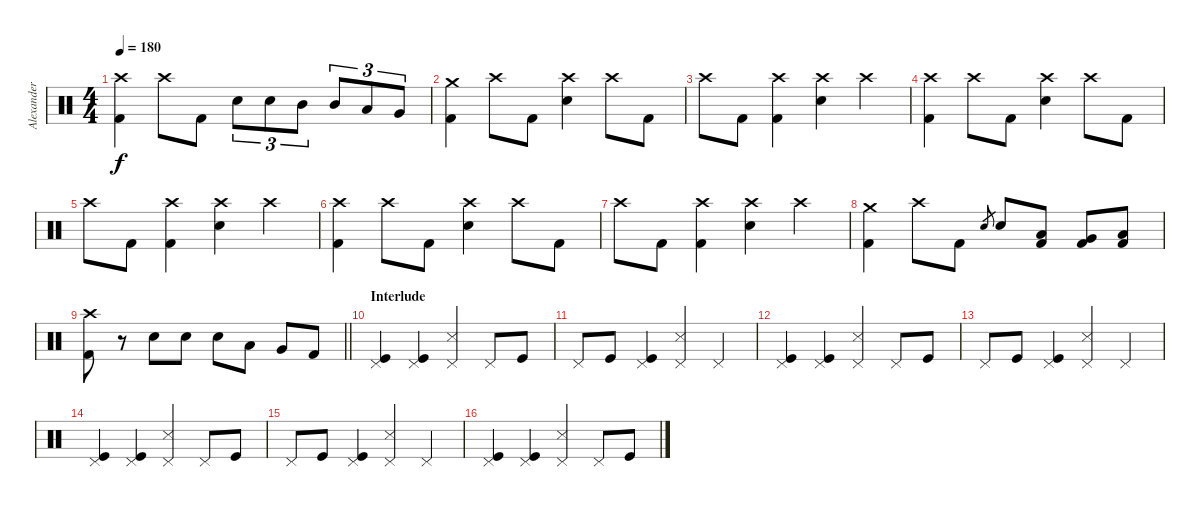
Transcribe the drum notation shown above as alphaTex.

\track ("Alexander Sveningsson" "Alexander ") {instrument percussion}
\staff {score}
\articulation defaults
\ts (4 4)
\tempo 180
\clef neutral
\ks c
("Crash high (hit)" "Kick (hit) 2").4{dy f} "Crash high (hit)".8 "Kick (hit) 2".8 "Electric Snare (hit)".8{tu (3 2)} "Electric Snare (hit)".8{tu (3 2)} "Mid Tom (hit)".8{tu (3 2)} "Mid Tom (hit)".8{tu (3 2)} "Low Tom (hit)".8{tu (3 2)} "Very Low Tom (hit)".8{tu (3 2)} |
("Crash medium (hit)" "Kick (hit) 2").4 "Crash high (hit)".8 "Kick (hit) 2".8 ("Crash high (hit)" "Electric Snare (hit)").4 "Crash high (hit)".8 "Kick (hit) 2".8 |
"Crash high (hit)".8 "Kick (hit) 2".8 ("Crash high (hit)" "Kick (hit) 2").4 ("Crash high (hit)" "Electric Snare (hit)").4 "Crash high (hit)".4 |
("Crash high (hit)" "Kick (hit) 2").4 "Crash high (hit)".8 "Kick (hit) 2".8 ("Crash high (hit)" "Electric Snare (hit)").4 "Crash high (hit)".8 "Kick (hit) 2".8 |
"Crash high (hit)".8 "Kick (hit) 2".8 ("Crash high (hit)" "Kick (hit) 2").4 ("Crash high (hit)" "Electric Snare (hit)").4 "Crash high (hit)".4 |
("Crash high (hit)" "Kick (hit) 2").4 "Crash high (hit)".8 "Kick (hit) 2".8 ("Crash high (hit)" "Electric Snare (hit)").4 "Crash high (hit)".8 "Kick (hit) 2".8 |
"Crash high (hit)".8 "Kick (hit) 2".8 ("Crash high (hit)" "Kick (hit) 2").4 ("Crash high (hit)" "Electric Snare (hit)").4 "Crash high (hit)".4 |
("Crash medium (hit)" "Kick (hit) 2").4 "Crash high (hit)".8 "Kick (hit) 2".8 "Electric Snare (hit)".8{gr} "Electric Snare (hit)".8 ("Low Tom (hit)" "Kick (hit) 2").8 ("Very Low Tom (hit)" "Kick (hit) 2").8 ("Low Floor Tom (hit)" "Kick (hit) 2").8 |
\barLineRight lightlight
("Crash high (hit)" "Kick (hit) 2").8 r.8 "Electric Snare (hit)".8 "Electric Snare (hit)".8 "Electric Snare (hit)".8 "Low Tom (hit)".8 "Very Low Tom (hit)".8 "Kick (hit) 2".8 |
\section ("" "Interlude")
("Pedal Hi-Hat (hit)" "Kick (hit)").4 ("Pedal Hi-Hat (hit)" "Kick (hit)").4 ("Pedal Hi-Hat (hit)" "Snare (side stick) 3").4 "Pedal Hi-Hat (hit)".8 "Kick (hit)".8 |
"Pedal Hi-Hat (hit)".8 "Kick (hit)".8 ("Pedal Hi-Hat (hit)" "Kick (hit)").4 ("Pedal Hi-Hat (hit)" "Snare (side stick) 3").4 "Pedal Hi-Hat (hit)".4 |
("Pedal Hi-Hat (hit)" "Kick (hit)").4 ("Pedal Hi-Hat (hit)" "Kick (hit)").4 ("Pedal Hi-Hat (hit)" "Snare (side stick) 3").4 "Pedal Hi-Hat (hit)".8 "Kick (hit)".8 |
"Pedal Hi-Hat (hit)".8 "Kick (hit)".8 ("Pedal Hi-Hat (hit)" "Kick (hit)").4 ("Pedal Hi-Hat (hit)" "Snare (side stick) 3").4 "Pedal Hi-Hat (hit)".4 |
("Pedal Hi-Hat (hit)" "Kick (hit)").4 ("Pedal Hi-Hat (hit)" "Kick (hit)").4 ("Pedal Hi-Hat (hit)" "Snare (side stick) 3").4 "Pedal Hi-Hat (hit)".8 "Kick (hit)".8 |
"Pedal Hi-Hat (hit)".8 "Kick (hit)".8 ("Pedal Hi-Hat (hit)" "Kick (hit)").4 ("Pedal Hi-Hat (hit)" "Snare (side stick) 3").4 "Pedal Hi-Hat (hit)".4 |
("Pedal Hi-Hat (hit)" "Kick (hit)").4 ("Pedal Hi-Hat (hit)" "Kick (hit)").4 ("Pedal Hi-Hat (hit)" "Snare (side stick) 3").4 "Pedal Hi-Hat (hit)".8 "Kick (hit)".8
